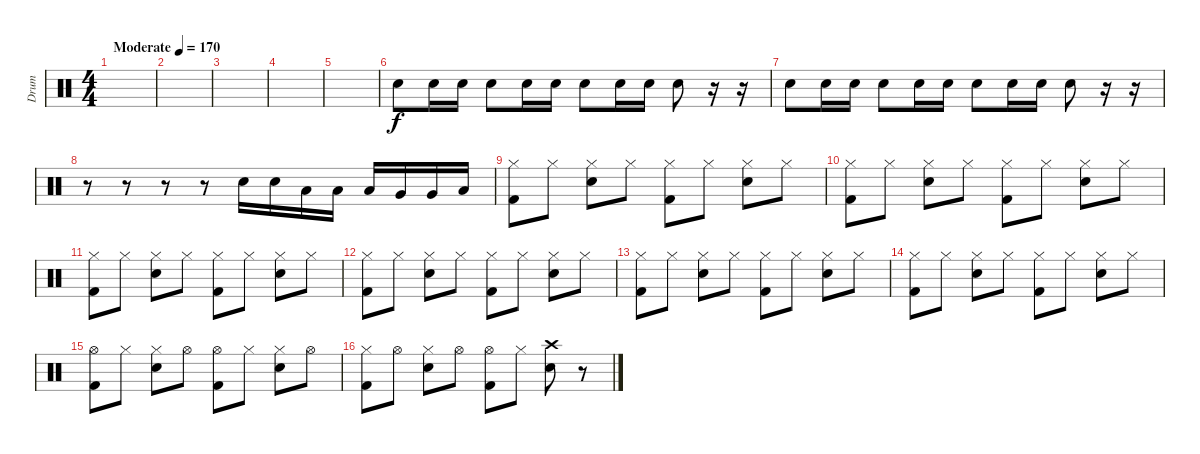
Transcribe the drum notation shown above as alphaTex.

\track ("Drum" "Drum") {instrument percussion}
\staff {score}
\articulation defaults
\ts (4 4)
\tempo (170 "Moderate")
\clef neutral
\ks c
|
|
|
|
|
"Snare (hit) 2".8 "Snare (hit) 2".16 "Snare (hit) 2".16 "Snare (hit) 2".8 "Snare (hit) 2".16 "Snare (hit) 2".16 "Snare (hit) 2".8 "Snare (hit) 2".16 "Snare (hit) 2".16 "Snare (hit) 2".8 r.16 r.16 |
"Snare (hit) 2".8 "Snare (hit) 2".16 "Snare (hit) 2".16 "Snare (hit) 2".8 "Snare (hit) 2".16 "Snare (hit) 2".16 "Snare (hit) 2".8 "Snare (hit) 2".16 "Snare (hit) 2".16 "Snare (hit) 2".8 r.16 r.16 |
r.8 r.8 r.8 r.8 "Snare (hit) 2".16{dy f} "Snare (hit) 2".16 "Low Tom (hit)".16 "Low Tom (hit)".16 "Low Tom (hit)".16 "Very Low Tom (hit)".16 "Very Low Tom (hit)".16 "Low Floor Tom (hit)".16 |
("Hi-Hat (closed)" "Kick (hit) 2").8 "Hi-Hat (closed)".8 ("Hi-Hat (closed)" "Snare (hit) 2").8 "Hi-Hat (closed)".8 ("Hi-Hat (closed)" "Kick (hit) 2").8 "Hi-Hat (closed)".8 ("Hi-Hat (closed)" "Snare (hit) 2").8 "Hi-Hat (closed)".8 |
("Hi-Hat (closed)" "Kick (hit) 2").8 "Hi-Hat (closed)".8 ("Hi-Hat (closed)" "Snare (hit) 2").8 "Hi-Hat (closed)".8 ("Hi-Hat (closed)" "Kick (hit) 2").8 "Hi-Hat (closed)".8 ("Hi-Hat (closed)" "Snare (hit) 2").8 "Hi-Hat (closed)".8 |
("Hi-Hat (closed)" "Kick (hit) 2").8 "Hi-Hat (closed)".8 ("Hi-Hat (closed)" "Snare (hit) 2").8 "Hi-Hat (closed)".8 ("Hi-Hat (closed)" "Kick (hit) 2").8 "Hi-Hat (closed)".8 ("Hi-Hat (closed)" "Snare (hit) 2").8 "Hi-Hat (closed)".8 |
("Hi-Hat (closed)" "Kick (hit) 2").8 "Hi-Hat (closed)".8 ("Hi-Hat (closed)" "Snare (hit) 2").8 "Hi-Hat (closed)".8 ("Hi-Hat (closed)" "Kick (hit) 2").8 "Hi-Hat (closed)".8 ("Hi-Hat (closed)" "Snare (hit) 2").8 "Hi-Hat (closed)".8 |
("Hi-Hat (closed)" "Kick (hit) 2").8 "Hi-Hat (closed)".8 ("Hi-Hat (closed)" "Snare (hit) 2").8 "Hi-Hat (closed)".8 ("Hi-Hat (closed)" "Kick (hit) 2").8 "Hi-Hat (closed)".8 ("Hi-Hat (closed)" "Snare (hit) 2").8 "Hi-Hat (closed)".8 |
("Hi-Hat (closed)" "Kick (hit) 2").8 "Hi-Hat (closed)".8 ("Hi-Hat (closed)" "Snare (hit) 2").8 "Hi-Hat (closed)".8 ("Hi-Hat (closed)" "Kick (hit) 2").8 "Hi-Hat (closed)".8 ("Hi-Hat (closed)" "Snare (hit) 2").8 "Hi-Hat (closed)".8 |
("Hi-Hat (open)" "Kick (hit) 2").8 "Hi-Hat (closed)".8 ("Hi-Hat (closed)" "Snare (hit) 2").8 "Hi-Hat (open)".8 ("Hi-Hat (open)" "Kick (hit) 2").8 "Hi-Hat (closed)".8 ("Hi-Hat (closed)" "Snare (hit) 2").8 "Hi-Hat (open)".8 |
("Hi-Hat (closed)" "Kick (hit) 2").8 "Hi-Hat (open)".8 ("Hi-Hat (closed)" "Snare (hit) 2").8 "Hi-Hat (open)".8 ("Hi-Hat (open)" "Kick (hit) 2").8 "Hi-Hat (closed)".8 ("Crash high (hit)" "Snare (hit) 2").8 r.8
